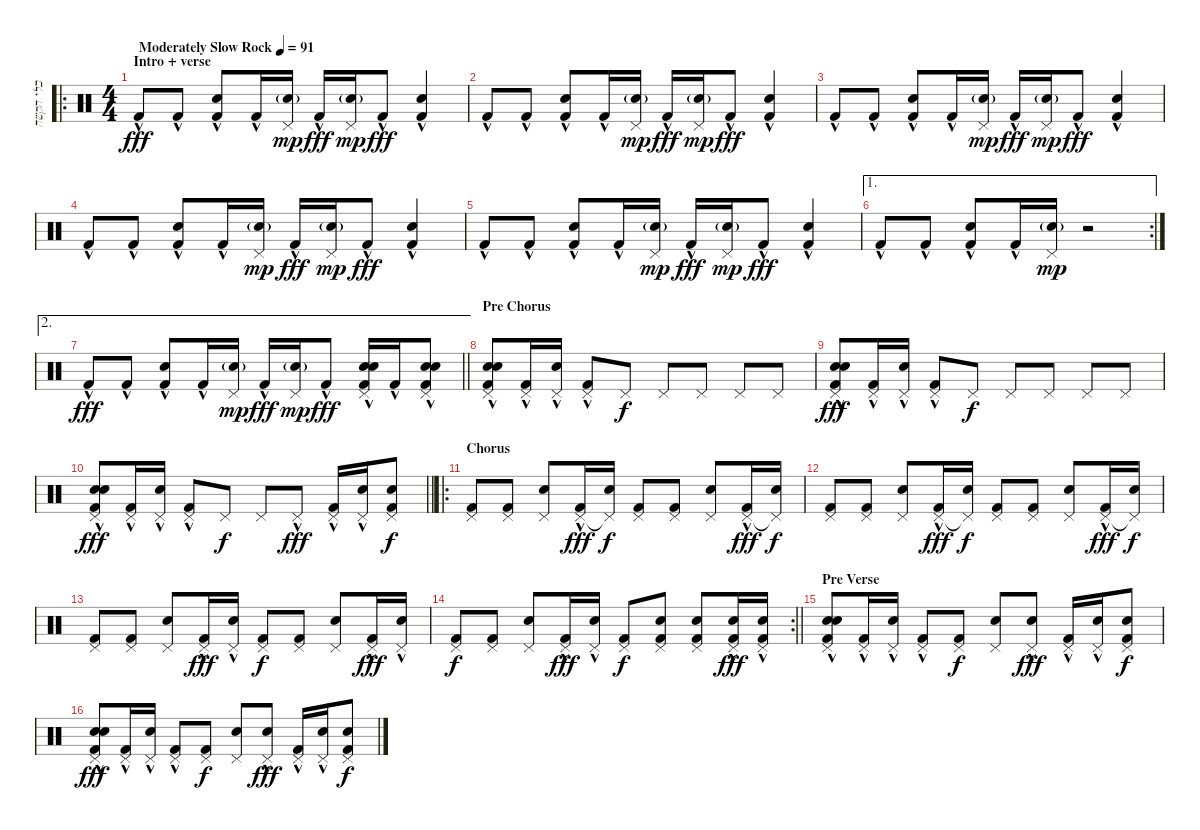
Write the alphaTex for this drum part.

\track ("כלי הקשה" "כלי הקשה") {instrument percussion}
\staff {score}
\articulation defaults
\ro
\ts (4 4)
\section ("" "Intro + verse")
\tempo (91 "Moderately Slow Rock")
\clef neutral
\ks c "Kick (hit) 2"{hac}.8{dy fff} "Kick (hit) 2"{hac}.8
("Electric Snare (hit)" "Kick (hit) 2"{hac}).8 "Kick (hit) 2"{hac}.16 ("Pedal Hi-Hat (hit)" "Electric Snare (hit)"{g}).16{dy mp} "Kick (hit) 2"{hac}.16{dy fff} ("Pedal Hi-Hat (hit)" "Electric Snare (hit)"{g}).16{dy mp} "Kick (hit) 2"{hac}.8{dy fff} ("Electric Snare (hit)" "Kick (hit) 2"{hac}).4 |
"Kick (hit) 2"{hac}.8 "Kick (hit) 2"{hac}.8 ("Electric Snare (hit)" "Kick (hit) 2"{hac}).8 "Kick (hit) 2"{hac}.16 ("Pedal Hi-Hat (hit)" "Electric Snare (hit)"{g}).16{dy mp} "Kick (hit) 2"{hac}.16{dy fff} ("Pedal Hi-Hat (hit)" "Electric Snare (hit)"{g}).16{dy mp} "Kick (hit) 2"{hac}.8{dy fff} ("Electric Snare (hit)" "Kick (hit) 2"{hac}).4 |
"Kick (hit) 2"{hac}.8 "Kick (hit) 2"{hac}.8 ("Electric Snare (hit)" "Kick (hit) 2"{hac}).8 "Kick (hit) 2"{hac}.16 ("Pedal Hi-Hat (hit)" "Electric Snare (hit)"{g}).16{dy mp} "Kick (hit) 2"{hac}.16{dy fff} ("Pedal Hi-Hat (hit)" "Electric Snare (hit)"{g}).16{dy mp} "Kick (hit) 2"{hac}.8{dy fff} ("Electric Snare (hit)" "Kick (hit) 2"{hac}).4 |
"Kick (hit) 2"{hac}.8 "Kick (hit) 2"{hac}.8 ("Electric Snare (hit)" "Kick (hit) 2"{hac}).8 "Kick (hit) 2"{hac}.16 ("Pedal Hi-Hat (hit)" "Electric Snare (hit)"{g}).16{dy mp} "Kick (hit) 2"{hac}.16{dy fff} ("Pedal Hi-Hat (hit)" "Electric Snare (hit)"{g}).16{dy mp} "Kick (hit) 2"{hac}.8{dy fff} ("Electric Snare (hit)" "Kick (hit) 2"{hac}).4 |
"Kick (hit) 2"{hac}.8 "Kick (hit) 2"{hac}.8 ("Electric Snare (hit)" "Kick (hit) 2"{hac}).8 "Kick (hit) 2"{hac}.16 ("Pedal Hi-Hat (hit)" "Electric Snare (hit)"{g}).16{dy mp} "Kick (hit) 2"{hac}.16{dy fff} ("Pedal Hi-Hat (hit)" "Electric Snare (hit)"{g}).16{dy mp} "Kick (hit) 2"{hac}.8{dy fff} ("Electric Snare (hit)" "Kick (hit) 2"{hac}).4 |
\ae 1
\rc 2 "Kick (hit) 2"{hac}.8 "Kick (hit) 2"{hac}.8
("Electric Snare (hit)" "Kick (hit) 2"{hac}).8 "Kick (hit) 2"{hac}.16 ("Pedal Hi-Hat (hit)" "Electric Snare (hit)"{g}).16{dy mp} r.2 |
\ae 2
\barLineRight lightlight "Kick (hit) 2"{hac}.8{dy fff} "Kick (hit) 2"{hac}.8
("Electric Snare (hit)" "Kick (hit) 2"{hac}).8 "Kick (hit) 2"{hac}.16 ("Pedal Hi-Hat (hit)" "Electric Snare (hit)"{g}).16{dy mp} "Kick (hit) 2"{hac}.16{dy fff} ("Pedal Hi-Hat (hit)" "Electric Snare (hit)"{g}).16{dy mp} "Kick (hit) 2"{hac}.8{dy fff} ("Pedal Hi-Hat (hit)" "Electric Snare (hit)"{hac} "Electric Snare (hit)"{hac} "Kick (hit) 2"{hac}).16 "Kick (hit) 2"{hac}.16 ("Pedal Hi-Hat (hit)" "Electric Snare (hit)"{hac} "Electric Snare (hit)"{hac} "Kick (hit) 2"{hac}).8 |
\section ("" "Pre Chorus")
("Pedal Hi-Hat (hit)" "Electric Snare (hit)"{hac} "Electric Snare (hit)"{hac} "Kick (hit) 2"{hac}).8 ("Pedal Hi-Hat (hit)" "Kick (hit) 2"{hac}).16 ("Pedal Hi-Hat (hit)" "Electric Snare (hit)"{hac}).16 ("Pedal Hi-Hat (hit)" "Kick (hit) 2"{hac}).8 "Pedal Hi-Hat (hit)".8{dy f} "Pedal Hi-Hat (hit)".8 "Pedal Hi-Hat (hit)".8 "Pedal Hi-Hat (hit)".8 "Pedal Hi-Hat (hit)".8 |
("Pedal Hi-Hat (hit)" "Electric Snare (hit)"{hac} "Electric Snare (hit)"{hac} "Kick (hit) 2"{hac}).8{dy fff} ("Pedal Hi-Hat (hit)" "Kick (hit) 2"{hac}).16 ("Pedal Hi-Hat (hit)" "Electric Snare (hit)"{hac}).16 ("Pedal Hi-Hat (hit)" "Kick (hit) 2"{hac}).8 "Pedal Hi-Hat (hit)".8{dy f} "Pedal Hi-Hat (hit)".8 "Pedal Hi-Hat (hit)".8 "Pedal Hi-Hat (hit)".8 "Pedal Hi-Hat (hit)".8 |
\barLineRight lightlight
("Pedal Hi-Hat (hit)" "Electric Snare (hit)"{hac} "Electric Snare (hit)"{hac} "Kick (hit) 2"{hac}).8{dy fff} ("Pedal Hi-Hat (hit)" "Kick (hit) 2"{hac}).16 ("Pedal Hi-Hat (hit)" "Electric Snare (hit)"{hac}).16 ("Pedal Hi-Hat (hit)" "Kick (hit) 2"{hac}).8 "Pedal Hi-Hat (hit)".8{dy f} "Pedal Hi-Hat (hit)".8 "Pedal Hi-Hat (hit)"{hac}.8{dy fff} ("Pedal Hi-Hat (hit)"{hac} "Kick (hit) 2").16 ("Pedal Hi-Hat (hit)"{hac} "Electric Snare (hit)").16 ("Pedal Hi-Hat (hit)" "Electric Snare (hit)" "Kick (hit) 2").8{dy f} |
\ro
\section ("" "Chorus")
("Pedal Hi-Hat (hit)" "Kick (hit) 2").8 ("Pedal Hi-Hat (hit)" "Kick (hit) 2").8 ("Pedal Hi-Hat (hit)" "Electric Snare (hit)").8 ("Pedal Hi-Hat (hit)"{hac} "Kick (hit) 2").16{dy fff} ("Pedal Hi-Hat (hit)"{t} "Electric Snare (hit)").16{dy f} ("Pedal Hi-Hat (hit)" "Kick (hit) 2").8 ("Pedal Hi-Hat (hit)" "Kick (hit) 2").8 ("Pedal Hi-Hat (hit)" "Electric Snare (hit)").8 ("Pedal Hi-Hat (hit)"{hac} "Kick (hit) 2").16{dy fff} ("Pedal Hi-Hat (hit)"{t} "Electric Snare (hit)").16{dy f} |
("Pedal Hi-Hat (hit)" "Kick (hit) 2").8 ("Pedal Hi-Hat (hit)" "Kick (hit) 2").8 ("Pedal Hi-Hat (hit)" "Electric Snare (hit)").8 ("Pedal Hi-Hat (hit)"{hac} "Kick (hit) 2").16{dy fff} ("Pedal Hi-Hat (hit)"{t} "Electric Snare (hit)").16{dy f} ("Pedal Hi-Hat (hit)" "Kick (hit) 2").8 ("Pedal Hi-Hat (hit)" "Kick (hit) 2").8 ("Pedal Hi-Hat (hit)" "Electric Snare (hit)").8 ("Pedal Hi-Hat (hit)"{hac} "Kick (hit) 2").16{dy fff} ("Pedal Hi-Hat (hit)"{t} "Electric Snare (hit)").16{dy f} |
("Pedal Hi-Hat (hit)" "Kick (hit) 2").8 ("Pedal Hi-Hat (hit)" "Kick (hit) 2").8 ("Pedal Hi-Hat (hit)" "Electric Snare (hit)").8 ("Pedal Hi-Hat (hit)"{hac} "Kick (hit) 2").16{dy fff} ("Pedal Hi-Hat (hit)"{hac} "Electric Snare (hit)").16 ("Pedal Hi-Hat (hit)" "Kick (hit) 2").8{dy f} ("Pedal Hi-Hat (hit)" "Kick (hit) 2").8 ("Pedal Hi-Hat (hit)" "Electric Snare (hit)").8 ("Pedal Hi-Hat (hit)"{hac} "Kick (hit) 2").16{dy fff} ("Pedal Hi-Hat (hit)"{hac} "Electric Snare (hit)").16 |
\rc 2
\barLineRight lightlight
("Pedal Hi-Hat (hit)" "Kick (hit) 2").8{dy f} ("Pedal Hi-Hat (hit)" "Kick (hit) 2").8 ("Pedal Hi-Hat (hit)" "Electric Snare (hit)").8 ("Pedal Hi-Hat (hit)"{hac} "Kick (hit) 2").16{dy fff} ("Pedal Hi-Hat (hit)"{hac} "Electric Snare (hit)").16 ("Pedal Hi-Hat (hit)" "Kick (hit) 2").8{dy f} ("Pedal Hi-Hat (hit)" "Electric Snare (hit)" "Kick (hit) 2").8 ("Pedal Hi-Hat (hit)" "Electric Snare (hit)" "Kick (hit) 2").8 ("Pedal Hi-Hat (hit)"{hac} "Electric Snare (hit)" "Kick (hit) 2").16{dy fff} ("Pedal Hi-Hat (hit)"{hac} "Electric Snare (hit)" "Kick (hit) 2").16 |
\section ("" "Pre Verse")
("Pedal Hi-Hat (hit)" "Electric Snare (hit)"{hac} "Electric Snare (hit)"{hac} "Kick (hit) 2"{hac}).8 ("Pedal Hi-Hat (hit)" "Kick (hit) 2"{hac}).16 ("Pedal Hi-Hat (hit)" "Electric Snare (hit)"{hac}).16 ("Pedal Hi-Hat (hit)" "Kick (hit) 2"{hac}).8 ("Pedal Hi-Hat (hit)" "Kick (hit) 2").8{dy f} ("Pedal Hi-Hat (hit)" "Electric Snare (hit)").8 ("Pedal Hi-Hat (hit)"{hac} "Electric Snare (hit)").8{dy fff} ("Pedal Hi-Hat (hit)"{hac} "Kick (hit) 2").16 ("Pedal Hi-Hat (hit)"{hac} "Electric Snare (hit)").16 ("Pedal Hi-Hat (hit)" "Electric Snare (hit)" "Kick (hit) 2").8{dy f} |
("Pedal Hi-Hat (hit)" "Electric Snare (hit)"{hac} "Electric Snare (hit)"{hac} "Kick (hit) 2"{hac}).8{dy fff} ("Pedal Hi-Hat (hit)" "Kick (hit) 2"{hac}).16 ("Pedal Hi-Hat (hit)" "Electric Snare (hit)"{hac}).16 ("Pedal Hi-Hat (hit)" "Kick (hit) 2"{hac}).8 ("Pedal Hi-Hat (hit)" "Kick (hit) 2").8{dy f} ("Pedal Hi-Hat (hit)" "Electric Snare (hit)").8 ("Pedal Hi-Hat (hit)"{hac} "Electric Snare (hit)").8{dy fff} ("Pedal Hi-Hat (hit)"{hac} "Kick (hit) 2").16 ("Pedal Hi-Hat (hit)"{hac} "Electric Snare (hit)").16 ("Pedal Hi-Hat (hit)" "Electric Snare (hit)" "Kick (hit) 2").8{dy f}
